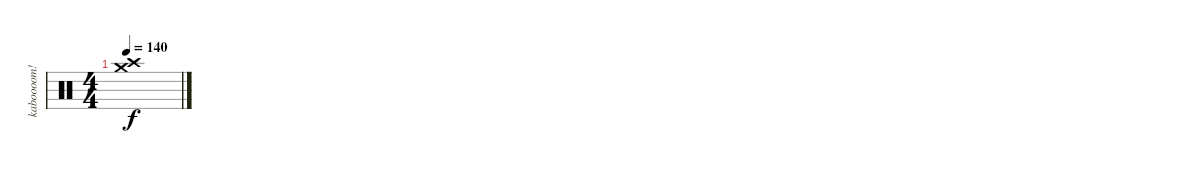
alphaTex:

\track ("kaboooom!" "kaboooom!") {instrument percussion}
\staff {score}
\articulation defaults
\ts (4 4)
\tempo 140
\clef neutral
\ks c
("Crash high (hit)" "Crash medium (hit)").1{dy f}
